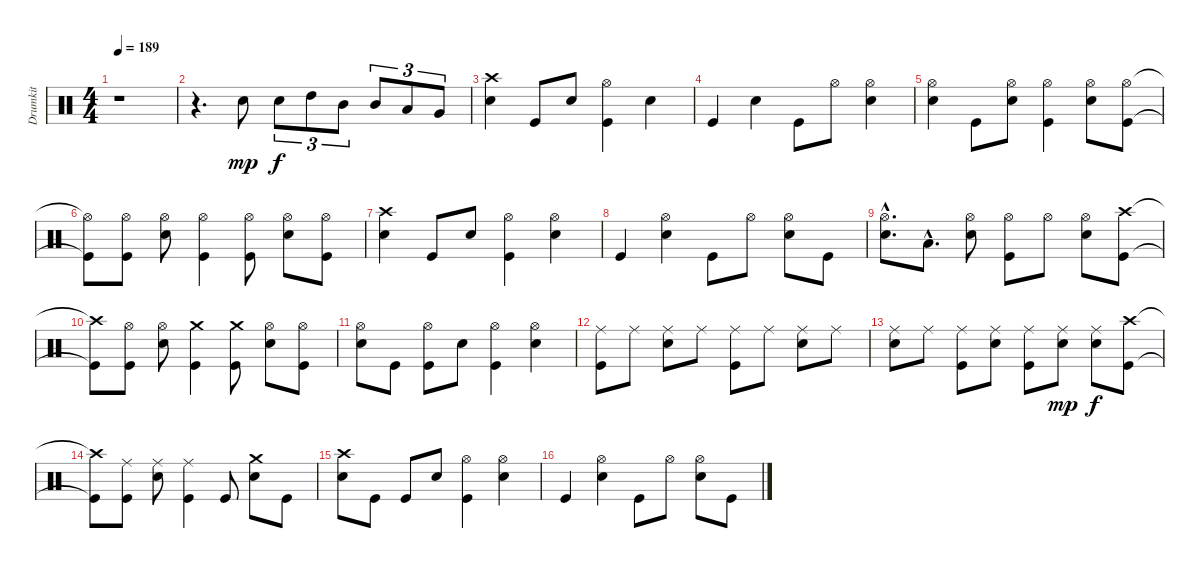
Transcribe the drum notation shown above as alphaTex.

\track ("Drumkit" "Drumkit") {instrument percussion}
\staff {score}
\articulation defaults
\ts (4 4)
\tempo 189
\clef neutral
\ks c
r.1{dy f} |
r.4{d} "Snare (hit) 2".8{dy mp} "Snare (hit) 2".8{tu (3 2) dy f} "High Tom (hit)".8{tu (3 2)} "Mid Tom (hit)".8{tu (3 2)} "Mid Tom (hit)".8{tu (3 2)} "Low Tom (hit)".8{tu (3 2)} "Very Low Tom (hit)".8{tu (3 2)} |
("Snare (hit) 2" "Crash high (hit)").4 "Kick (hit)".8 "Snare (hit) 2".8 ("Hi-Hat (open)" "Kick (hit)").4 "Snare (hit) 2".4 |
"Kick (hit)".4 "Snare (hit) 2".4 "Kick (hit)".8 "Hi-Hat (open)".8 ("Snare (hit) 2" "Hi-Hat (open)").4 |
("Snare (hit) 2" "Hi-Hat (open)").4 "Kick (hit)".8 ("Snare (hit) 2" "Hi-Hat (open)").8 ("Hi-Hat (open)" "Kick (hit)").4 ("Snare (hit) 2" "Hi-Hat (open)").8 ("Kick (hit)" "Hi-Hat (open)").8 |
("Kick (hit)"{t} "Hi-Hat (open)"{t}).8 ("Kick (hit)" "Hi-Hat (open)").8 ("Snare (hit) 2" "Hi-Hat (open)").8 ("Kick (hit)" "Hi-Hat (open)").4 ("Kick (hit)" "Hi-Hat (open)").8 ("Snare (hit) 2" "Hi-Hat (open)").8 ("Kick (hit)" "Hi-Hat (open)").8 |
("Snare (hit) 2" "Crash high (hit)").4 "Kick (hit)".8 "Snare (hit) 2".8 ("Hi-Hat (open)" "Kick (hit)").4 ("Snare (hit) 2" "Hi-Hat (open)").4 |
"Kick (hit)".4 ("Snare (hit) 2" "Hi-Hat (open)").4 "Kick (hit)".8 "Hi-Hat (open)".8 ("Snare (hit) 2" "Hi-Hat (open)").8 "Kick (hit)".8 |
("Snare (hit) 2"{hac} "Hi-Hat (open)"{hac}).8{d} "Low Tom (hit)"{hac}.8{d} ("Snare (hit) 2" "Hi-Hat (open)").8 ("Hi-Hat (open)" "Kick (hit)").8 "Hi-Hat (open)".8 ("Snare (hit) 2" "Hi-Hat (open)").8 ("Kick (hit)" "Crash high (hit)").8 |
("Kick (hit)"{t} "Crash high (hit)"{t}).8 ("Kick (hit)" "Hi-Hat (open)").8 ("Snare (hit) 2" "Hi-Hat (open)").8 ("Kick (hit)" "Crash medium (hit)").4 ("Kick (hit)" "Crash medium (hit)").8 ("Snare (hit) 2" "Hi-Hat (open)").8 ("Kick (hit)" "Hi-Hat (open)").8 |
("Snare (hit) 2" "Hi-Hat (open)").8 "Kick (hit)".8 ("Kick (hit)" "Hi-Hat (open)").8 "Snare (hit) 2".8 ("Kick (hit)" "Hi-Hat (open)").4 ("Snare (hit) 2" "Hi-Hat (open)").4 |
("Kick (hit)" "Ride (middle)").8 "Ride (middle)".8 ("Ride (middle)" "Snare (hit) 2").8 "Ride (middle)".8 ("Kick (hit)" "Ride (middle)").8 "Ride (middle)".8 ("Ride (middle)" "Snare (hit) 2").8 "Ride (middle)".8 |
("Snare (hit) 2" "Ride (middle)").8 "Ride (middle)".8 ("Kick (hit)" "Ride (middle)").8 ("Snare (hit) 2" "Ride (middle)").8 ("Kick (hit)" "Ride (middle)").8 ("Snare (hit) 2" "Ride (middle)").8{dy mp} ("Snare (hit) 2" "Ride (middle)").8{dy f} ("Kick (hit)" "Crash high (hit)").8 |
("Kick (hit)"{t} "Crash high (hit)"{t}).8 ("Kick (hit)" "Ride (middle)").8 ("Snare (hit) 2" "Ride (middle)").8 ("Kick (hit)" "Ride (middle)").4 "Kick (hit)".8 ("Snare (hit) 2" "Crash medium (hit)").8 "Kick (hit)".8 |
("Snare (hit) 2" "Crash high (hit)").8 "Kick (hit)".8 "Kick (hit)".8 "Snare (hit) 2".8 ("Hi-Hat (open)" "Kick (hit)").4 ("Snare (hit) 2" "Hi-Hat (open)").4 |
"Kick (hit)".4 ("Snare (hit) 2" "Hi-Hat (open)").4 "Kick (hit)".8 "Hi-Hat (open)".8 ("Snare (hit) 2" "Hi-Hat (open)").8 "Kick (hit)".8
